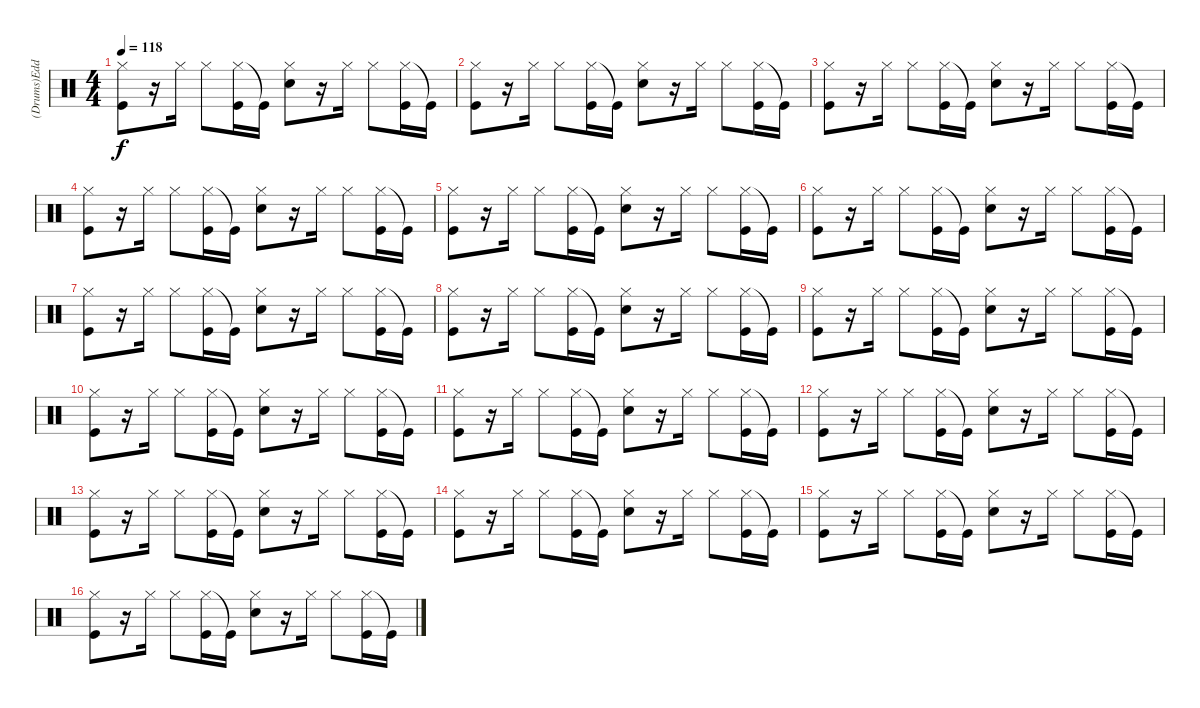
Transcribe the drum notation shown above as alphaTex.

\track ("(Drums)Eddie Fisher" "(Drums)Edd") {instrument percussion}
\staff {score}
\articulation defaults
\ts (4 4)
\tempo 118
\clef neutral
\ks c
("Hi-Hat (closed)" "Kick (hit)").8{dy f} r.16 "Hi-Hat (closed)".16 "Hi-Hat (closed)".8 ("Hi-Hat (closed)" "Kick (hit)").16 "Kick (hit)"{t}.16 ("Hi-Hat (closed)" "Hand Clap (hit)").8 r.16 "Hi-Hat (closed)".16 "Hi-Hat (closed)".8 ("Hi-Hat (closed)" "Kick (hit)").16 "Kick (hit)"{t}.16 |
("Hi-Hat (closed)" "Kick (hit)").8 r.16 "Hi-Hat (closed)".16 "Hi-Hat (closed)".8 ("Hi-Hat (closed)" "Kick (hit)").16 "Kick (hit)"{t}.16 ("Hi-Hat (closed)" "Hand Clap (hit)").8 r.16 "Hi-Hat (closed)".16 "Hi-Hat (closed)".8 ("Hi-Hat (closed)" "Kick (hit)").16 "Kick (hit)"{t}.16 |
("Kick (hit)" "Hi-Hat (closed)").8 r.16 "Hi-Hat (closed)".16 "Hi-Hat (closed)".8 ("Hi-Hat (closed)" "Kick (hit)").16 "Kick (hit)"{t}.16 ("Hi-Hat (closed)" "Hand Clap (hit)").8 r.16 "Hi-Hat (closed)".16 "Hi-Hat (closed)".8 ("Hi-Hat (closed)" "Kick (hit)").16 "Kick (hit)"{t}.16 |
("Hi-Hat (closed)" "Kick (hit)").8 r.16 "Hi-Hat (closed)".16 "Hi-Hat (closed)".8 ("Hi-Hat (closed)" "Kick (hit)").16 "Kick (hit)"{t}.16 ("Hi-Hat (closed)" "Hand Clap (hit)").8 r.16 "Hi-Hat (closed)".16 "Hi-Hat (closed)".8 ("Hi-Hat (closed)" "Kick (hit)").16 "Kick (hit)"{t}.16 |
("Kick (hit)" "Hi-Hat (closed)").8 r.16 "Hi-Hat (closed)".16 "Hi-Hat (closed)".8 ("Hi-Hat (closed)" "Kick (hit)").16 "Kick (hit)"{t}.16 ("Hi-Hat (closed)" "Hand Clap (hit)").8 r.16 "Hi-Hat (closed)".16 "Hi-Hat (closed)".8 ("Hi-Hat (closed)" "Kick (hit)").16 "Kick (hit)"{t}.16 |
("Hi-Hat (closed)" "Kick (hit)").8 r.16 "Hi-Hat (closed)".16 "Hi-Hat (closed)".8 ("Hi-Hat (closed)" "Kick (hit)").16 "Kick (hit)"{t}.16 ("Hi-Hat (closed)" "Hand Clap (hit)").8 r.16 "Hi-Hat (closed)".16 "Hi-Hat (closed)".8 ("Hi-Hat (closed)" "Kick (hit)").16 "Kick (hit)"{t}.16 |
("Kick (hit)" "Hi-Hat (closed)").8 r.16 "Hi-Hat (closed)".16 "Hi-Hat (closed)".8 ("Hi-Hat (closed)" "Kick (hit)").16 "Kick (hit)"{t}.16 ("Hi-Hat (closed)" "Hand Clap (hit)").8 r.16 "Hi-Hat (closed)".16 "Hi-Hat (closed)".8 ("Hi-Hat (closed)" "Kick (hit)").16 "Kick (hit)"{t}.16 |
("Kick (hit)" "Hi-Hat (closed)").8 r.16 "Hi-Hat (closed)".16 "Hi-Hat (closed)".8 ("Hi-Hat (closed)" "Kick (hit)").16 "Kick (hit)"{t}.16 ("Hi-Hat (closed)" "Hand Clap (hit)").8 r.16 "Hi-Hat (closed)".16 "Hi-Hat (closed)".8 ("Hi-Hat (closed)" "Kick (hit)").16 "Kick (hit)"{t}.16 |
("Hi-Hat (closed)" "Kick (hit)").8 r.16 "Hi-Hat (closed)".16 "Hi-Hat (closed)".8 ("Hi-Hat (closed)" "Kick (hit)").16 "Kick (hit)"{t}.16 ("Hi-Hat (closed)" "Hand Clap (hit)").8 r.16 "Hi-Hat (closed)".16 "Hi-Hat (closed)".8 ("Hi-Hat (closed)" "Kick (hit)").16 "Kick (hit)"{t}.16 |
("Hi-Hat (closed)" "Kick (hit)").8 r.16 "Hi-Hat (closed)".16 "Hi-Hat (closed)".8 ("Hi-Hat (closed)" "Kick (hit)").16 "Kick (hit)"{t}.16 ("Hi-Hat (closed)" "Hand Clap (hit)").8 r.16 "Hi-Hat (closed)".16 "Hi-Hat (closed)".8 ("Hi-Hat (closed)" "Kick (hit)").16 "Kick (hit)"{t}.16 |
("Kick (hit)" "Hi-Hat (closed)").8 r.16 "Hi-Hat (closed)".16 "Hi-Hat (closed)".8 ("Hi-Hat (closed)" "Kick (hit)").16 "Kick (hit)"{t}.16 ("Hi-Hat (closed)" "Hand Clap (hit)").8 r.16 "Hi-Hat (closed)".16 "Hi-Hat (closed)".8 ("Hi-Hat (closed)" "Kick (hit)").16 "Kick (hit)"{t}.16 |
("Hi-Hat (closed)" "Kick (hit)").8 r.16 "Hi-Hat (closed)".16 "Hi-Hat (closed)".8 ("Hi-Hat (closed)" "Kick (hit)").16 "Kick (hit)"{t}.16 ("Hi-Hat (closed)" "Hand Clap (hit)").8 r.16 "Hi-Hat (closed)".16 "Hi-Hat (closed)".8 ("Hi-Hat (closed)" "Kick (hit)").16 "Kick (hit)"{t}.16 |
("Kick (hit)" "Hi-Hat (closed)").8 r.16 "Hi-Hat (closed)".16 "Hi-Hat (closed)".8 ("Hi-Hat (closed)" "Kick (hit)").16 "Kick (hit)"{t}.16 ("Hi-Hat (closed)" "Hand Clap (hit)").8 r.16 "Hi-Hat (closed)".16 "Hi-Hat (closed)".8 ("Hi-Hat (closed)" "Kick (hit)").16 "Kick (hit)"{t}.16 |
("Hi-Hat (closed)" "Kick (hit)").8 r.16 "Hi-Hat (closed)".16 "Hi-Hat (closed)".8 ("Hi-Hat (closed)" "Kick (hit)").16 "Kick (hit)"{t}.16 ("Hi-Hat (closed)" "Hand Clap (hit)").8 r.16 "Hi-Hat (closed)".16 "Hi-Hat (closed)".8 ("Hi-Hat (closed)" "Kick (hit)").16 "Kick (hit)"{t}.16 |
("Kick (hit)" "Hi-Hat (closed)").8 r.16 "Hi-Hat (closed)".16 "Hi-Hat (closed)".8 ("Hi-Hat (closed)" "Kick (hit)").16 "Kick (hit)"{t}.16 ("Hi-Hat (closed)" "Hand Clap (hit)").8 r.16 "Hi-Hat (closed)".16 "Hi-Hat (closed)".8 ("Hi-Hat (closed)" "Kick (hit)").16 "Kick (hit)"{t}.16 |
("Hi-Hat (closed)" "Kick (hit)").8 r.16 "Hi-Hat (closed)".16 "Hi-Hat (closed)".8 ("Hi-Hat (closed)" "Kick (hit)").16 "Kick (hit)"{t}.16 ("Hi-Hat (closed)" "Hand Clap (hit)").8 r.16 "Hi-Hat (closed)".16 "Hi-Hat (closed)".8 ("Hi-Hat (closed)" "Kick (hit)").16 "Kick (hit)"{t}.16
